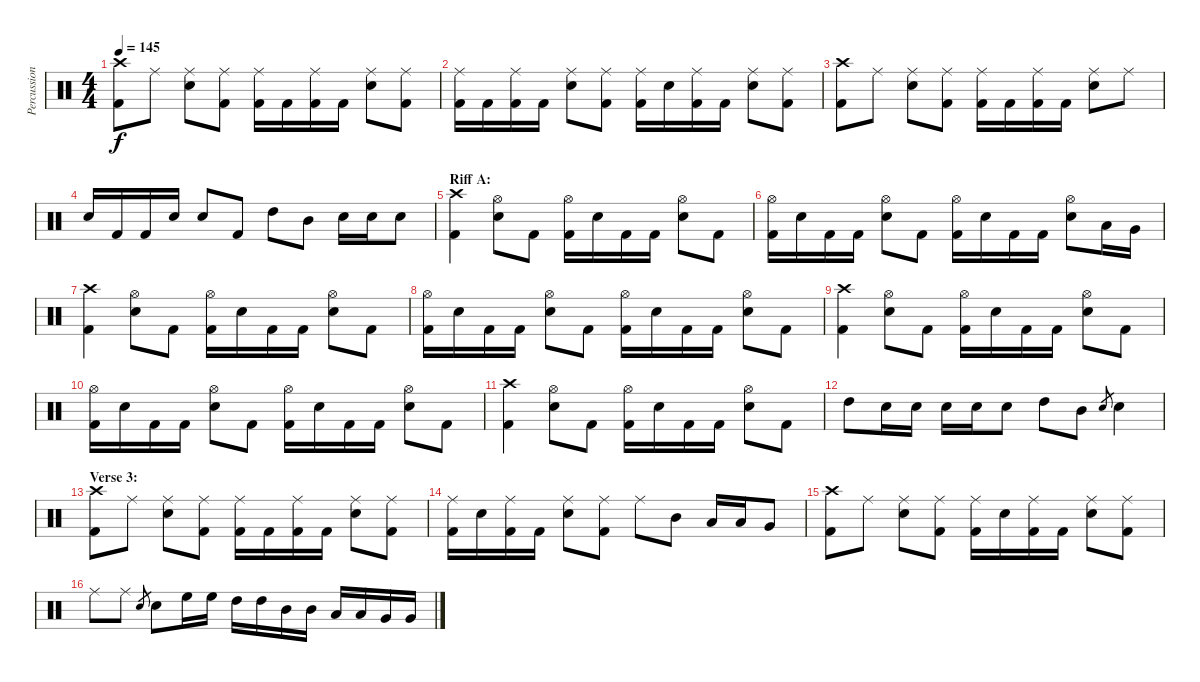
\track ("Percussion" "Percussion") {instrument percussion}
\staff {score}
\articulation defaults
\ts (4 4)
\tempo 145
\clef neutral
\ks c
("Crash high (hit)" "Kick (hit) 2").8{dy f} "Ride (middle)".8 ("Ride (middle)" "Electric Snare (hit)").8 ("Ride (middle)" "Kick (hit) 2").8 ("Ride (middle)" "Kick (hit) 2").16 "Kick (hit) 2".16 ("Ride (middle)" "Kick (hit) 2").16 "Kick (hit) 2".16 ("Ride (middle)" "Electric Snare (hit)").8 ("Ride (middle)" "Kick (hit) 2").8 |
("Ride (middle)" "Kick (hit) 2").16 "Kick (hit) 2".16 ("Ride (middle)" "Kick (hit) 2").16 "Kick (hit) 2".16 ("Ride (middle)" "Electric Snare (hit)").8 ("Ride (middle)" "Kick (hit) 2").8 ("Ride (middle)" "Kick (hit) 2").16 "Electric Snare (hit)".16 ("Ride (middle)" "Kick (hit) 2").16 "Kick (hit) 2".16 ("Ride (middle)" "Electric Snare (hit)").8 ("Ride (middle)" "Kick (hit) 2").8 |
("Crash high (hit)" "Kick (hit) 2").8 "Ride (middle)".8 ("Ride (middle)" "Electric Snare (hit)").8 ("Ride (middle)" "Kick (hit) 2").8 ("Ride (middle)" "Kick (hit) 2").16 "Kick (hit) 2".16 ("Ride (middle)" "Kick (hit) 2").16 "Kick (hit) 2".16 ("Ride (middle)" "Electric Snare (hit)").8 "Ride (middle)".8 |
"Electric Snare (hit)".16 "Kick (hit) 2".16 "Kick (hit) 2".16 "Electric Snare (hit)".16 "Electric Snare (hit)".8 "Kick (hit) 2".8 "High Tom (hit)".8 "Mid Tom (hit)".8 "Electric Snare (hit)".16 "Electric Snare (hit)".16 "Electric Snare (hit)".8 |
\section ("" "Riff A:")
("Crash high (hit)" "Kick (hit) 2").4 ("Hi-Hat (open)" "Electric Snare (hit)").8 "Kick (hit) 2".8 ("Hi-Hat (open)" "Kick (hit) 2").16 "Electric Snare (hit)".16 "Kick (hit) 2".16 "Kick (hit) 2".16 ("Hi-Hat (open)" "Electric Snare (hit)").8 "Kick (hit) 2".8 |
("Hi-Hat (open)" "Kick (hit) 2").16 "Electric Snare (hit)".16 "Kick (hit) 2".16 "Kick (hit) 2".16 ("Hi-Hat (open)" "Electric Snare (hit)").8 "Kick (hit) 2".8 ("Hi-Hat (open)" "Kick (hit) 2").16 "Electric Snare (hit)".16 "Kick (hit) 2".16 "Kick (hit) 2".16 ("Hi-Hat (open)" "Electric Snare (hit)").8 "Low Tom (hit)".16 "Very Low Tom (hit)".16 |
("Crash high (hit)" "Kick (hit) 2").4 ("Hi-Hat (open)" "Electric Snare (hit)").8 "Kick (hit) 2".8 ("Hi-Hat (open)" "Kick (hit) 2").16 "Electric Snare (hit)".16 "Kick (hit) 2".16 "Kick (hit) 2".16 ("Hi-Hat (open)" "Electric Snare (hit)").8 "Kick (hit) 2".8 |
("Hi-Hat (open)" "Kick (hit) 2").16 "Electric Snare (hit)".16 "Kick (hit) 2".16 "Kick (hit) 2".16 ("Hi-Hat (open)" "Electric Snare (hit)").8 "Kick (hit) 2".8 ("Hi-Hat (open)" "Kick (hit) 2").16 "Electric Snare (hit)".16 "Kick (hit) 2".16 "Kick (hit) 2".16 ("Hi-Hat (open)" "Electric Snare (hit)").8 "Kick (hit) 2".8 |
("Crash high (hit)" "Kick (hit) 2").4 ("Hi-Hat (open)" "Electric Snare (hit)").8 "Kick (hit) 2".8 ("Hi-Hat (open)" "Kick (hit) 2").16 "Electric Snare (hit)".16 "Kick (hit) 2".16 "Kick (hit) 2".16 ("Hi-Hat (open)" "Electric Snare (hit)").8 "Kick (hit) 2".8 |
("Hi-Hat (open)" "Kick (hit) 2").16 "Electric Snare (hit)".16 "Kick (hit) 2".16 "Kick (hit) 2".16 ("Hi-Hat (open)" "Electric Snare (hit)").8 "Kick (hit) 2".8 ("Hi-Hat (open)" "Kick (hit) 2").16 "Electric Snare (hit)".16 "Kick (hit) 2".16 "Kick (hit) 2".16 ("Hi-Hat (open)" "Electric Snare (hit)").8 "Kick (hit) 2".8 |
("Crash high (hit)" "Kick (hit) 2").4 ("Hi-Hat (open)" "Electric Snare (hit)").8 "Kick (hit) 2".8 ("Hi-Hat (open)" "Kick (hit) 2").16 "Electric Snare (hit)".16 "Kick (hit) 2".16 "Kick (hit) 2".16 ("Hi-Hat (open)" "Electric Snare (hit)").8 "Kick (hit) 2".8 |
"High Tom (hit)".8 "Electric Snare (hit)".16 "Electric Snare (hit)".16 "Electric Snare (hit)".16 "Electric Snare (hit)".16 "Electric Snare (hit)".8 "High Tom (hit)".8 "Mid Tom (hit)".8 "Electric Snare (hit)".8{gr} "Electric Snare (hit)".4 |
\section ("" "Verse 3:")
("Crash high (hit)" "Kick (hit) 2").8 "Ride (middle)".8 ("Ride (middle)" "Electric Snare (hit)").8 ("Ride (middle)" "Kick (hit) 2").8 ("Ride (middle)" "Kick (hit) 2").16 "Kick (hit) 2".16 ("Ride (middle)" "Kick (hit) 2").16 "Kick (hit) 2".16 ("Ride (middle)" "Electric Snare (hit)").8 ("Ride (middle)" "Kick (hit) 2").8 |
("Ride (middle)" "Kick (hit) 2").16 "Electric Snare (hit)".16 ("Ride (middle)" "Kick (hit) 2").16 "Kick (hit) 2".16 ("Ride (middle)" "Electric Snare (hit)").8 ("Ride (middle)" "Kick (hit) 2").8 "Ride (middle)".8 "Mid Tom (hit)".8 "Low Tom (hit)".16 "Low Tom (hit)".16 "Very Low Tom (hit)".8 |
("Crash high (hit)" "Kick (hit) 2").8 "Ride (middle)".8 ("Ride (middle)" "Electric Snare (hit)").8 ("Ride (middle)" "Kick (hit) 2").8 ("Ride (middle)" "Kick (hit) 2").16 "Electric Snare (hit)".16 ("Ride (middle)" "Kick (hit) 2").16 "Kick (hit) 2".16 ("Ride (middle)" "Electric Snare (hit)").8 ("Ride (middle)" "Kick (hit) 2").8 |
"Ride (middle)".8 "Ride (middle)".8 "Electric Snare (hit)".8{gr} "Electric Snare (hit)".8 "High Floor Tom (hit)".16 "High Floor Tom (hit)".16 "High Tom (hit)".16 "High Tom (hit)".16 "Mid Tom (hit)".16 "Mid Tom (hit)".16 "Low Tom (hit)".16 "Low Tom (hit)".16 "Very Low Tom (hit)".16 "Very Low Tom (hit)".16
